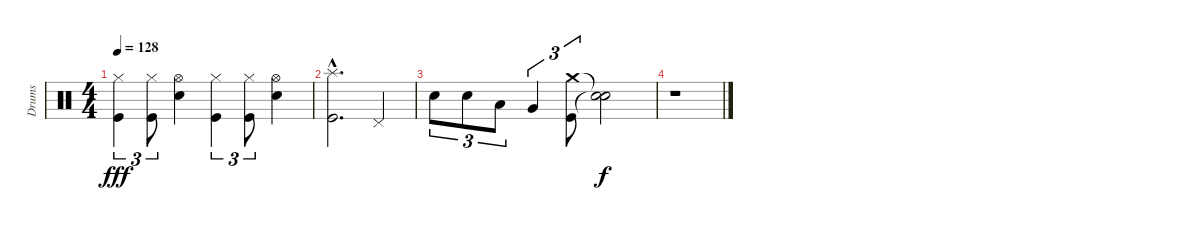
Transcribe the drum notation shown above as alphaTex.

\track ("Drums" "Drums") {instrument percussion}
\staff {score}
\articulation defaults
\ts (4 4)
\tempo 128
\clef neutral
\ks c
("Hi-Hat (closed)" "Kick (hit)").4{tu (3 2) dy fff} ("Hi-Hat (closed)" "Kick (hit)").8{tu (3 2)} ("Hi-Hat (open)" "Snare (hit) 2").4 ("Hi-Hat (closed)" "Kick (hit)").4{tu (3 2)} ("Hi-Hat (closed)" "Kick (hit)").8{tu (3 2)} ("Hi-Hat (open)" "Snare (hit) 2").4 |
("Splash (hit)"{hac} "Kick (hit)"{hac}).2{d} "Pedal Hi-Hat (hit)".4 |
"Snare (hit) 2".8{tu (3 2)} "Snare (hit) 2".8{tu (3 2)} "Low Tom (hit)".8{tu (3 2)} "Very Low Tom (hit)".4{tu (3 2)} ("Crash medium (hit)" "Kick (hit)").8{tu (3 2)} ("Snare (hit)"{t} "Snare (hit)"{t}).2{dy f} |
r.1
